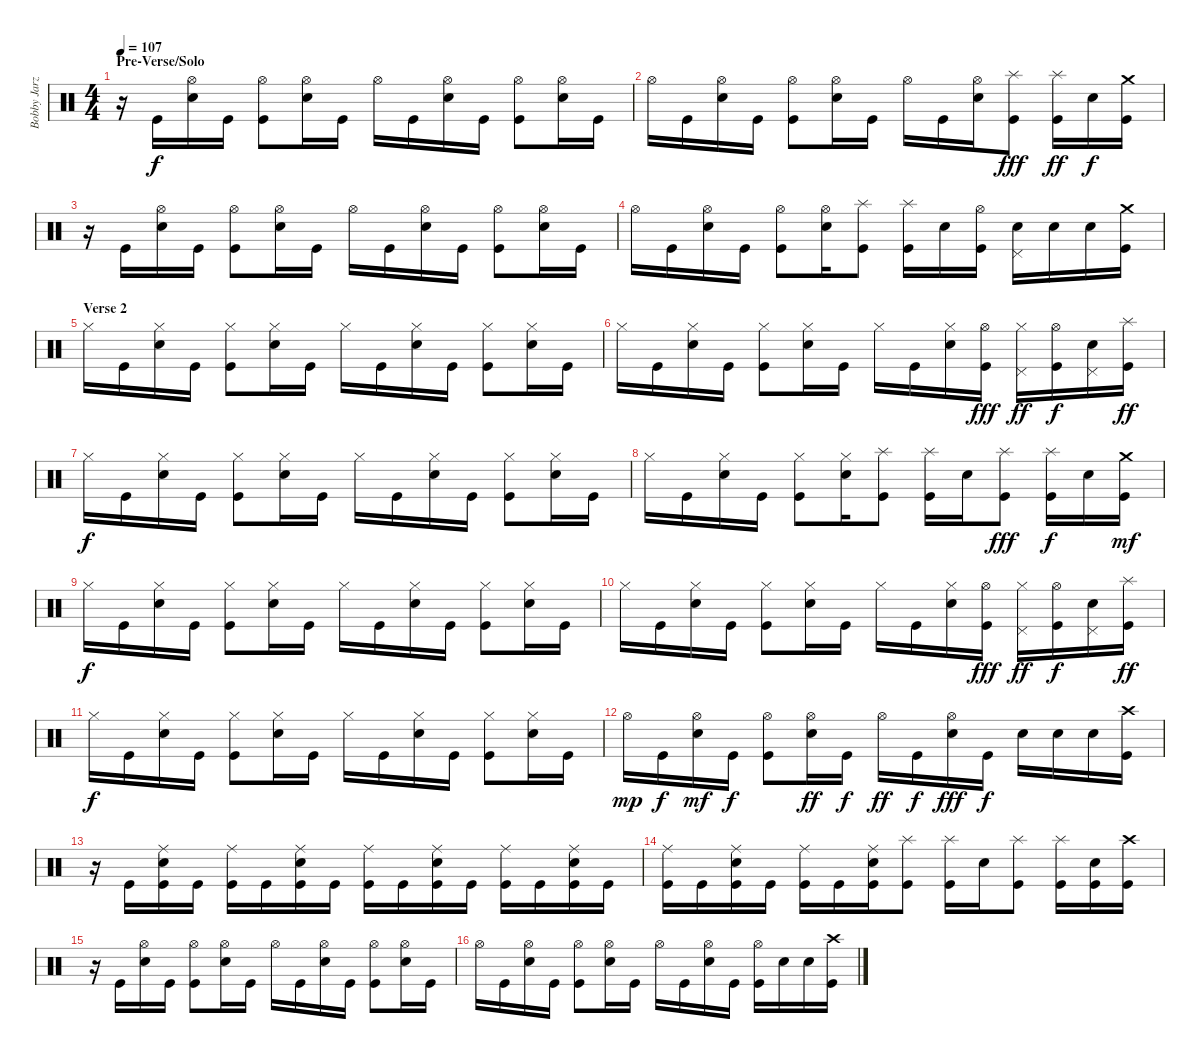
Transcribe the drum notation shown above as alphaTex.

\track ("Bobby Jarzombek" "Bobby Jarz") {instrument percussion}
\staff {score}
\articulation defaults
\ts (4 4)
\section ("" "Pre-Verse/Solo")
\tempo 107
\clef neutral
\ks c
r.16{dy f} "Kick (hit)".16 ("Hi-Hat (open)" "Electric Snare (hit)").16 "Kick (hit)".16 ("Hi-Hat (open)" "Kick (hit)").8 ("Hi-Hat (open)" "Electric Snare (hit)").16 "Kick (hit)".16 "Hi-Hat (open)".16 "Kick (hit)".16 ("Hi-Hat (open)" "Electric Snare (hit)").16 "Kick (hit)".16 ("Hi-Hat (open)" "Kick (hit)").8 ("Hi-Hat (open)" "Electric Snare (hit)").16 "Kick (hit)".16 |
"Hi-Hat (open)".16 "Kick (hit)".16 ("Hi-Hat (open)" "Electric Snare (hit)").16 "Kick (hit)".16 ("Hi-Hat (open)" "Kick (hit)").8 ("Hi-Hat (open)" "Electric Snare (hit)").16 "Kick (hit)".16 "Hi-Hat (open)".16 "Kick (hit)".16 ("Hi-Hat (open)" "Electric Snare (hit)").16 ("Splash (hit)" "Kick (hit)").8{dy fff} ("Splash (hit)" "Kick (hit)").16{dy ff} "Electric Snare (hit)".16{dy f} ("Crash medium (hit)" "Kick (hit)").16 |
r.16 "Kick (hit)".16 ("Hi-Hat (open)" "Electric Snare (hit)").16 "Kick (hit)".16 ("Hi-Hat (open)" "Kick (hit)").8 ("Hi-Hat (open)" "Electric Snare (hit)").16 "Kick (hit)".16 "Hi-Hat (open)".16 "Kick (hit)".16 ("Hi-Hat (open)" "Electric Snare (hit)").16 "Kick (hit)".16 ("Hi-Hat (open)" "Kick (hit)").8 ("Hi-Hat (open)" "Electric Snare (hit)").16 "Kick (hit)".16 |
"Hi-Hat (open)".16 "Kick (hit)".16 ("Hi-Hat (open)" "Electric Snare (hit)").16 "Kick (hit)".16 ("Hi-Hat (open)" "Kick (hit)").8 ("Hi-Hat (open)" "Electric Snare (hit)").16 ("Splash (hit)" "Kick (hit)").8 ("Splash (hit)" "Kick (hit)").16 "Electric Snare (hit)".16 ("Hi-Hat (open)" "Kick (hit)").16 ("Electric Snare (hit)" "Pedal Hi-Hat (hit)").16 "Electric Snare (hit)".16 "Electric Snare (hit)".16 ("Crash medium (hit)" "Kick (hit)").16 |
\section ("" "Verse 2")
"Hi-Hat (closed)".16 "Kick (hit)".16 ("Hi-Hat (closed)" "Electric Snare (hit)").16 "Kick (hit)".16 ("Hi-Hat (closed)" "Kick (hit)").8 ("Hi-Hat (closed)" "Electric Snare (hit)").16 "Kick (hit)".16 "Hi-Hat (closed)".16 "Kick (hit)".16 ("Hi-Hat (closed)" "Electric Snare (hit)").16 "Kick (hit)".16 ("Hi-Hat (closed)" "Kick (hit)").8 ("Hi-Hat (closed)" "Electric Snare (hit)").16 "Kick (hit)".16 |
"Hi-Hat (closed)".16 "Kick (hit)".16 ("Hi-Hat (closed)" "Electric Snare (hit)").16 "Kick (hit)".16 ("Hi-Hat (closed)" "Kick (hit)").8 ("Hi-Hat (closed)" "Electric Snare (hit)").16 "Kick (hit)".16 "Hi-Hat (closed)".16 "Kick (hit)".16 ("Hi-Hat (closed)" "Electric Snare (hit)").16 ("Hi-Hat (open)" "Kick (hit)").16{dy fff} ("Hi-Hat (closed)" "Pedal Hi-Hat (hit)").16{dy ff} ("Hi-Hat (open)" "Kick (hit)").16{dy f} ("Pedal Hi-Hat (hit)" "Electric Snare (hit)").16 ("Splash (hit)" "Kick (hit)").16{dy ff} |
"Hi-Hat (closed)".16{dy f} "Kick (hit)".16 ("Hi-Hat (closed)" "Electric Snare (hit)").16 "Kick (hit)".16 ("Hi-Hat (closed)" "Kick (hit)").8 ("Hi-Hat (closed)" "Electric Snare (hit)").16 "Kick (hit)".16 "Hi-Hat (closed)".16 "Kick (hit)".16 ("Hi-Hat (closed)" "Electric Snare (hit)").16 "Kick (hit)".16 ("Hi-Hat (closed)" "Kick (hit)").8 ("Hi-Hat (closed)" "Electric Snare (hit)").16 "Kick (hit)".16 |
"Hi-Hat (closed)".16 "Kick (hit)".16 ("Hi-Hat (closed)" "Electric Snare (hit)").16 "Kick (hit)".16 ("Hi-Hat (closed)" "Kick (hit)").8 ("Hi-Hat (closed)" "Electric Snare (hit)").16 ("Splash (hit)" "Kick (hit)").8 ("Splash (hit)" "Kick (hit)").16 "Electric Snare (hit)".16 ("Splash (hit)" "Kick (hit)").8{dy fff} ("Splash (hit)" "Kick (hit)").16{dy f} "Electric Snare (hit)".16 ("Crash medium (hit)" "Kick (hit)").16{dy mf} |
"Hi-Hat (closed)".16{dy f} "Kick (hit)".16 ("Hi-Hat (closed)" "Electric Snare (hit)").16 "Kick (hit)".16 ("Hi-Hat (closed)" "Kick (hit)").8 ("Hi-Hat (closed)" "Electric Snare (hit)").16 "Kick (hit)".16 "Hi-Hat (closed)".16 "Kick (hit)".16 ("Hi-Hat (closed)" "Electric Snare (hit)").16 "Kick (hit)".16 ("Hi-Hat (closed)" "Kick (hit)").8 ("Hi-Hat (closed)" "Electric Snare (hit)").16 "Kick (hit)".16 |
"Hi-Hat (closed)".16 "Kick (hit)".16 ("Hi-Hat (closed)" "Electric Snare (hit)").16 "Kick (hit)".16 ("Hi-Hat (closed)" "Kick (hit)").8 ("Hi-Hat (closed)" "Electric Snare (hit)").16 "Kick (hit)".16 "Hi-Hat (closed)".16 "Kick (hit)".16 ("Hi-Hat (closed)" "Electric Snare (hit)").16 ("Hi-Hat (open)" "Kick (hit)").16{dy fff} ("Hi-Hat (closed)" "Pedal Hi-Hat (hit)").16{dy ff} ("Hi-Hat (open)" "Kick (hit)").16{dy f} ("Pedal Hi-Hat (hit)" "Electric Snare (hit)").16 ("Splash (hit)" "Kick (hit)").16{dy ff} |
"Hi-Hat (closed)".16{dy f} "Kick (hit)".16 ("Hi-Hat (closed)" "Electric Snare (hit)").16 "Kick (hit)".16 ("Hi-Hat (closed)" "Kick (hit)").8 ("Hi-Hat (closed)" "Electric Snare (hit)").16 "Kick (hit)".16 "Hi-Hat (closed)".16 "Kick (hit)".16 ("Hi-Hat (closed)" "Electric Snare (hit)").16 "Kick (hit)".16 ("Hi-Hat (closed)" "Kick (hit)").8 ("Hi-Hat (closed)" "Electric Snare (hit)").16 "Kick (hit)".16 |
"Hi-Hat (open)".16{dy mp} "Kick (hit)".16{dy f} ("Hi-Hat (open)" "Electric Snare (hit)").16{dy mf} "Kick (hit)".16{dy f} ("Hi-Hat (open)" "Kick (hit)").8 ("Hi-Hat (open)" "Electric Snare (hit)").16{dy ff} "Kick (hit)".16{dy f} "Hi-Hat (open)".16{dy ff} "Kick (hit)".16{dy f} ("Hi-Hat (open)" "Electric Snare (hit)").16{dy fff} "Kick (hit)".16{dy f} "Electric Snare (hit)".16 "Electric Snare (hit)".16 "Electric Snare (hit)".16 ("Crash high (hit)" "Kick (hit)").16 |
r.16 "Kick (hit)".16 ("Ride (middle)" "Electric Snare (hit)" "Kick (hit)").16 "Kick (hit)".16 ("Ride (middle)" "Kick (hit)").16 "Kick (hit)".16 ("Ride (middle)" "Electric Snare (hit)" "Kick (hit)").16 "Kick (hit)".16 ("Ride (middle)" "Kick (hit)").16 "Kick (hit)".16 ("Ride (middle)" "Electric Snare (hit)" "Kick (hit)").16 "Kick (hit)".16 ("Ride (middle)" "Kick (hit)").16 "Kick (hit)".16 ("Ride (middle)" "Electric Snare (hit)" "Kick (hit)").16 "Kick (hit)".16 |
("Ride (middle)" "Kick (hit)").16 "Kick (hit)".16 ("Ride (middle)" "Electric Snare (hit)" "Kick (hit)").16 "Kick (hit)".16 ("Ride (middle)" "Kick (hit)").16 "Kick (hit)".16 ("Ride (middle)" "Electric Snare (hit)" "Kick (hit)").16 ("Splash (hit)" "Kick (hit)").8 ("Splash (hit)" "Kick (hit)").16 "Electric Snare (hit)".16 ("Splash (hit)" "Kick (hit)").8 ("Splash (hit)" "Kick (hit)").16 ("Electric Snare (hit)" "Kick (hit)").16 ("Crash high (hit)" "Kick (hit)").16 |
r.16 "Kick (hit)".16 ("Hi-Hat (open)" "Electric Snare (hit)").16 "Kick (hit)".16 ("Hi-Hat (open)" "Kick (hit)").8 ("Hi-Hat (open)" "Electric Snare (hit)").16 "Kick (hit)".16 "Hi-Hat (open)".16 "Kick (hit)".16 ("Hi-Hat (open)" "Electric Snare (hit)").16 "Kick (hit)".16 ("Hi-Hat (open)" "Kick (hit)").8 ("Hi-Hat (open)" "Electric Snare (hit)").16 "Kick (hit)".16 |
"Hi-Hat (open)".16 "Kick (hit)".16 ("Hi-Hat (open)" "Electric Snare (hit)").16 "Kick (hit)".16 ("Hi-Hat (open)" "Kick (hit)").8 ("Hi-Hat (open)" "Electric Snare (hit)").16 "Kick (hit)".16 "Hi-Hat (open)".16 "Kick (hit)".16 ("Hi-Hat (open)" "Electric Snare (hit)").16 "Kick (hit)".16 ("Hi-Hat (open)" "Kick (hit)").16 "Electric Snare (hit)".16 "Electric Snare (hit)".16 ("Crash high (hit)" "Kick (hit)").16
